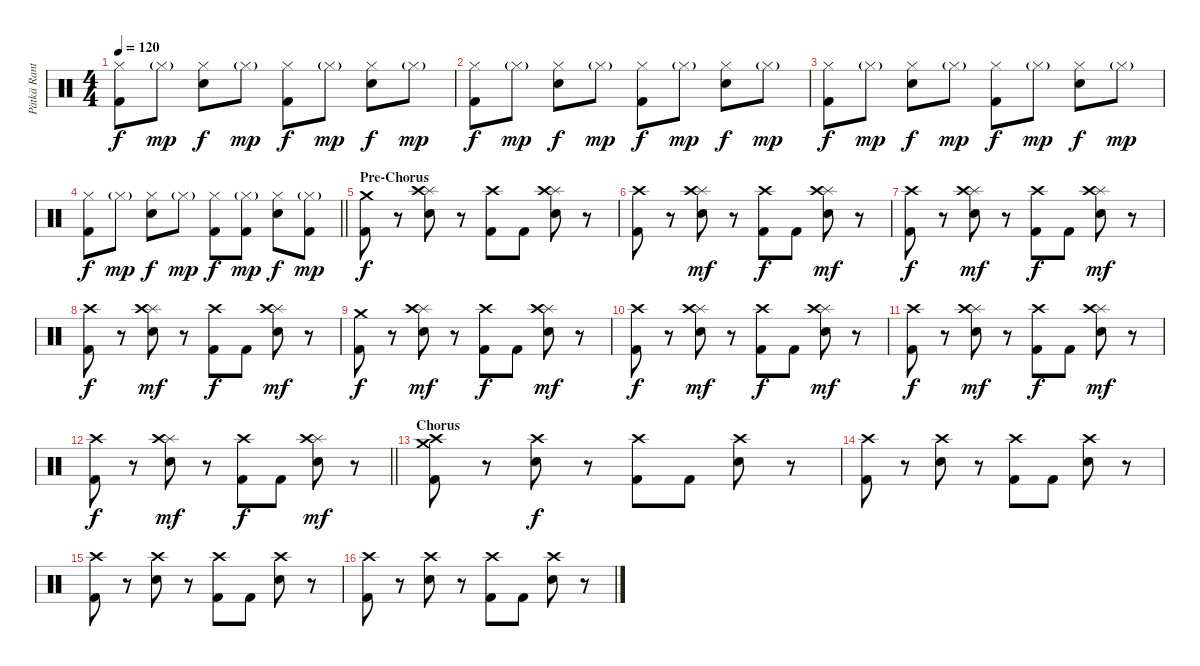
\track ("Pätkä Rantala (Drums)" "Pätkä Rant") {instrument percussion}
\staff {score}
\articulation defaults
\ts (4 4)
\tempo 120
\clef neutral
\ks c
("Hi-Hat (closed)" "Kick (hit) 2").8{dy f} "Hi-Hat (closed)"{g}.8{dy mp} ("Hi-Hat (closed)" "Snare (hit) 2").8{dy f} "Hi-Hat (closed)"{g}.8{dy mp} ("Hi-Hat (closed)" "Kick (hit) 2").8{dy f} "Hi-Hat (closed)"{g}.8{dy mp} ("Hi-Hat (closed)" "Snare (hit) 2").8{dy f} "Hi-Hat (closed)"{g}.8{dy mp} |
("Hi-Hat (closed)" "Kick (hit) 2").8{dy f} "Hi-Hat (closed)"{g}.8{dy mp} ("Hi-Hat (closed)" "Snare (hit) 2").8{dy f} "Hi-Hat (closed)"{g}.8{dy mp} ("Hi-Hat (closed)" "Kick (hit) 2").8{dy f} "Hi-Hat (closed)"{g}.8{dy mp} ("Hi-Hat (closed)" "Snare (hit) 2").8{dy f} "Hi-Hat (closed)"{g}.8{dy mp} |
("Hi-Hat (closed)" "Kick (hit) 2").8{dy f} "Hi-Hat (closed)"{g}.8{dy mp} ("Hi-Hat (closed)" "Snare (hit) 2").8{dy f} "Hi-Hat (closed)"{g}.8{dy mp} ("Hi-Hat (closed)" "Kick (hit) 2").8{dy f} "Hi-Hat (closed)"{g}.8{dy mp} ("Hi-Hat (closed)" "Snare (hit) 2").8{dy f} "Hi-Hat (closed)"{g}.8{dy mp} |
\barLineRight lightlight
("Hi-Hat (closed)" "Kick (hit) 2").8{dy f} "Hi-Hat (closed)"{g}.8{dy mp} ("Hi-Hat (closed)" "Snare (hit) 2").8{dy f} "Hi-Hat (closed)"{g}.8{dy mp} ("Hi-Hat (closed)" "Kick (hit) 2").8{dy f} ("Hi-Hat (closed)"{g} "Kick (hit) 2").8{dy mp} ("Hi-Hat (closed)" "Snare (hit) 2").8{dy f} ("Hi-Hat (closed)"{g} "Kick (hit) 2").8{dy mp} |
\section ("" "Pre-Chorus")
("Crash medium (hit)" "Kick (hit) 2").8{dy f} r.8 ("Splash (hit)" "Crash high (hit)" "Snare (hit) 2").8 r.8 ("Crash high (hit)" "Kick (hit) 2").8 "Kick (hit) 2".8 ("Splash (hit)" "Crash high (hit)" "Snare (hit) 2").8 r.8 |
("Crash high (hit)" "Kick (hit) 2").8 r.8 ("Splash (hit)" "Crash high (hit)" "Snare (hit) 2").8{dy mf} r.8 ("Crash high (hit)" "Kick (hit) 2").8{dy f} "Kick (hit) 2".8 ("Splash (hit)" "Crash high (hit)" "Snare (hit) 2").8{dy mf} r.8 |
("Crash high (hit)" "Kick (hit) 2").8{dy f} r.8 ("Splash (hit)" "Crash high (hit)" "Snare (hit) 2").8{dy mf} r.8 ("Crash high (hit)" "Kick (hit) 2").8{dy f} "Kick (hit) 2".8 ("Splash (hit)" "Crash high (hit)" "Snare (hit) 2").8{dy mf} r.8 |
("Crash high (hit)" "Kick (hit) 2").8{dy f} r.8 ("Splash (hit)" "Crash high (hit)" "Snare (hit) 2").8{dy mf} r.8 ("Crash high (hit)" "Kick (hit) 2").8{dy f} "Kick (hit) 2".8 ("Splash (hit)" "Crash high (hit)" "Snare (hit) 2").8{dy mf} r.8 |
("Crash medium (hit)" "Kick (hit) 2").8{dy f} r.8 ("Splash (hit)" "Crash high (hit)" "Snare (hit) 2").8{dy mf} r.8 ("Crash high (hit)" "Kick (hit) 2").8{dy f} "Kick (hit) 2".8 ("Splash (hit)" "Crash high (hit)" "Snare (hit) 2").8{dy mf} r.8 |
("Crash high (hit)" "Kick (hit) 2").8{dy f} r.8 ("Splash (hit)" "Crash high (hit)" "Snare (hit) 2").8{dy mf} r.8 ("Crash high (hit)" "Kick (hit) 2").8{dy f} "Kick (hit) 2".8 ("Splash (hit)" "Crash high (hit)" "Snare (hit) 2").8{dy mf} r.8 |
("Crash high (hit)" "Kick (hit) 2").8{dy f} r.8 ("Splash (hit)" "Crash high (hit)" "Snare (hit) 2").8{dy mf} r.8 ("Crash high (hit)" "Kick (hit) 2").8{dy f} "Kick (hit) 2".8 ("Splash (hit)" "Crash high (hit)" "Snare (hit) 2").8{dy mf} r.8 |
\barLineRight lightlight
("Crash high (hit)" "Kick (hit) 2").8{dy f} r.8 ("Splash (hit)" "Crash high (hit)" "Snare (hit) 2").8{dy mf} r.8 ("Crash high (hit)" "Kick (hit) 2").8{dy f} "Kick (hit) 2".8 ("Splash (hit)" "Crash high (hit)" "Snare (hit) 2").8{dy mf} r.8 |
\section ("" "Chorus")
("Crash medium (hit)" "Crash high (hit)" "Kick (hit) 2").8 r.8 ("Crash high (hit)" "Snare (hit) 2").8{dy f} r.8 ("Crash high (hit)" "Kick (hit) 2").8 "Kick (hit) 2".8 ("Crash high (hit)" "Snare (hit) 2").8 r.8 |
("Crash high (hit)" "Kick (hit) 2").8 r.8 ("Crash high (hit)" "Snare (hit) 2").8 r.8 ("Crash high (hit)" "Kick (hit) 2").8 "Kick (hit) 2".8 ("Crash high (hit)" "Snare (hit) 2").8 r.8 |
("Crash high (hit)" "Kick (hit) 2").8 r.8 ("Crash high (hit)" "Snare (hit) 2").8 r.8 ("Crash high (hit)" "Kick (hit) 2").8 "Kick (hit) 2".8 ("Crash high (hit)" "Snare (hit) 2").8 r.8 |
("Crash high (hit)" "Kick (hit) 2").8 r.8 ("Crash high (hit)" "Snare (hit) 2").8 r.8 ("Crash high (hit)" "Kick (hit) 2").8 "Kick (hit) 2".8 ("Crash high (hit)" "Snare (hit) 2").8 r.8
